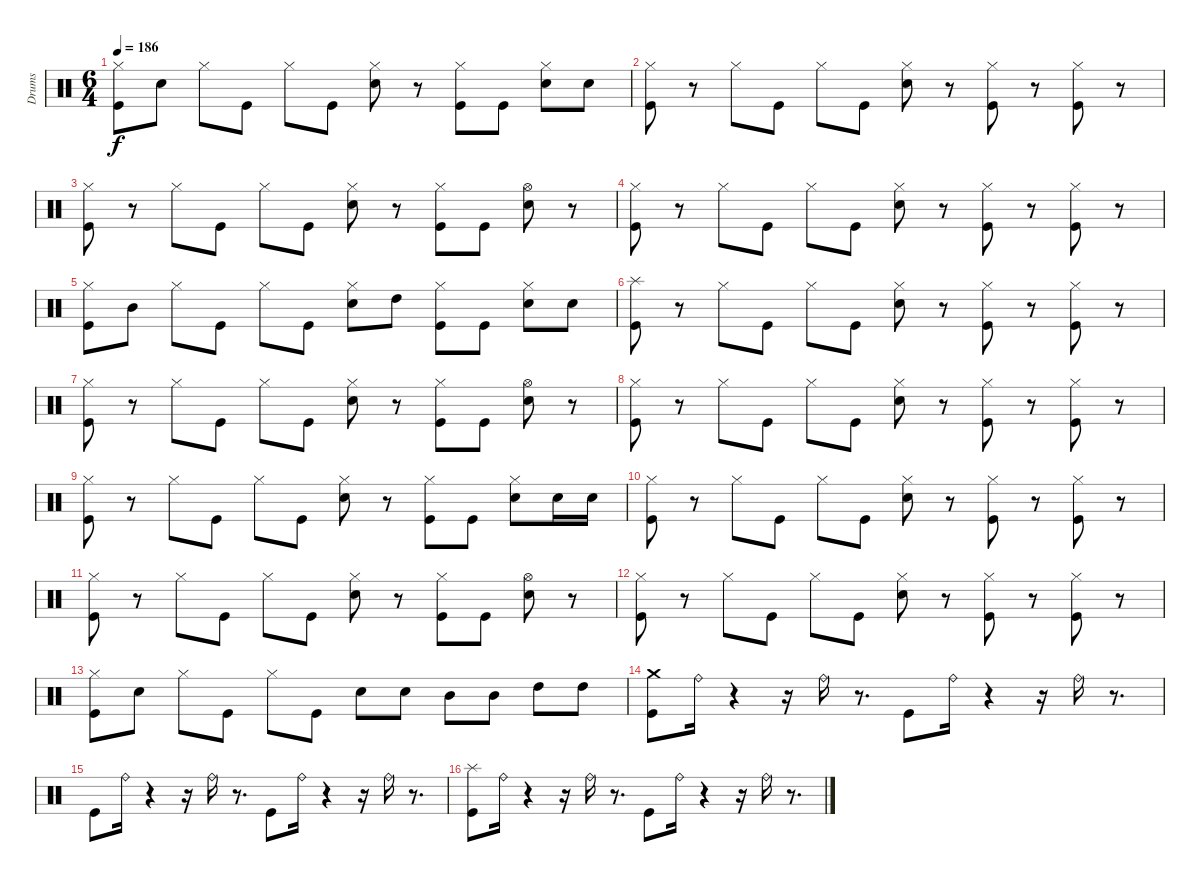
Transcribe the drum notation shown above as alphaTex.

\track ("Drums" "Drums") {instrument percussion}
\staff {score}
\articulation defaults
\ts (6 4)
\tempo 186
\clef neutral
\ks c
("Hi-Hat (closed)" "Kick (hit)").8{dy f} "Snare (hit) 2".8 "Hi-Hat (closed)".8 "Kick (hit)".8 "Hi-Hat (closed)".8 "Kick (hit)".8 ("Hi-Hat (closed)" "Snare (hit) 2").8 r.8 ("Hi-Hat (closed)" "Kick (hit)").8 "Kick (hit)".8 ("Hi-Hat (closed)" "Snare (hit) 2").8 "Snare (hit) 2".8 |
("Hi-Hat (closed)" "Kick (hit)").8 r.8 "Hi-Hat (closed)".8 "Kick (hit)".8 "Hi-Hat (closed)".8 "Kick (hit)".8 ("Hi-Hat (closed)" "Snare (hit) 2").8 r.8 ("Hi-Hat (closed)" "Kick (hit)").8 r.8 ("Hi-Hat (closed)" "Kick (hit)").8 r.8 |
("Hi-Hat (closed)" "Kick (hit)").8 r.8 "Hi-Hat (closed)".8 "Kick (hit)".8 "Hi-Hat (closed)".8 "Kick (hit)".8 ("Hi-Hat (closed)" "Snare (hit) 2").8 r.8 ("Hi-Hat (closed)" "Kick (hit)").8 "Kick (hit)".8 ("Hi-Hat (open)" "Snare (hit) 2").8 r.8 |
("Hi-Hat (closed)" "Kick (hit)").8 r.8 "Hi-Hat (closed)".8 "Kick (hit)".8 "Hi-Hat (closed)".8 "Kick (hit)".8 ("Hi-Hat (closed)" "Snare (hit) 2").8 r.8 ("Hi-Hat (closed)" "Kick (hit)").8 r.8 ("Hi-Hat (closed)" "Kick (hit)").8 r.8 |
("Hi-Hat (closed)" "Kick (hit)").8 "Mid Tom (hit)".8 "Hi-Hat (closed)".8 "Kick (hit)".8 "Hi-Hat (closed)".8 "Kick (hit)".8 ("Hi-Hat (closed)" "Snare (hit) 2").8 "High Tom (hit)".8 ("Hi-Hat (closed)" "Kick (hit)").8 "Kick (hit)".8 ("Hi-Hat (closed)" "Snare (hit) 2").8 "Snare (hit) 2".8 |
("Kick (hit)" "Splash (hit)").8 r.8 "Hi-Hat (closed)".8 "Kick (hit)".8 "Hi-Hat (closed)".8 "Kick (hit)".8 ("Hi-Hat (closed)" "Snare (hit) 2").8 r.8 ("Hi-Hat (closed)" "Kick (hit)").8 r.8 ("Hi-Hat (closed)" "Kick (hit)").8 r.8 |
("Hi-Hat (closed)" "Kick (hit)").8 r.8 "Hi-Hat (closed)".8 "Kick (hit)".8 "Hi-Hat (closed)".8 "Kick (hit)".8 ("Hi-Hat (closed)" "Snare (hit) 2").8 r.8 ("Hi-Hat (closed)" "Kick (hit)").8 "Kick (hit)".8 ("Snare (hit) 2" "Hi-Hat (open)").8 r.8 |
("Hi-Hat (closed)" "Kick (hit)").8 r.8 "Hi-Hat (closed)".8 "Kick (hit)".8 "Hi-Hat (closed)".8 "Kick (hit)".8 ("Hi-Hat (closed)" "Snare (hit) 2").8 r.8 ("Hi-Hat (closed)" "Kick (hit)").8 r.8 ("Hi-Hat (closed)" "Kick (hit)").8 r.8 |
("Hi-Hat (closed)" "Kick (hit)").8 r.8 "Hi-Hat (closed)".8 "Kick (hit)".8 "Hi-Hat (closed)".8 "Kick (hit)".8 ("Hi-Hat (closed)" "Snare (hit) 2").8 r.8 ("Hi-Hat (closed)" "Kick (hit)").8 "Kick (hit)".8 ("Hi-Hat (closed)" "Snare (hit) 2").8 "Snare (hit) 2".16 "Snare (hit) 2".16 |
("Hi-Hat (closed)" "Kick (hit)").8 r.8 "Hi-Hat (closed)".8 "Kick (hit)".8 "Hi-Hat (closed)".8 "Kick (hit)".8 ("Hi-Hat (closed)" "Snare (hit) 2").8 r.8 ("Hi-Hat (closed)" "Kick (hit)").8 r.8 ("Hi-Hat (closed)" "Kick (hit)").8 r.8 |
("Hi-Hat (closed)" "Kick (hit)").8 r.8 "Hi-Hat (closed)".8 "Kick (hit)".8 "Hi-Hat (closed)".8 "Kick (hit)".8 ("Hi-Hat (closed)" "Snare (hit) 2").8 r.8 ("Hi-Hat (closed)" "Kick (hit)").8 "Kick (hit)".8 ("Hi-Hat (open)" "Snare (hit) 2").8 r.8 |
("Hi-Hat (closed)" "Kick (hit)").8 r.8 "Hi-Hat (closed)".8 "Kick (hit)".8 "Hi-Hat (closed)".8 "Kick (hit)".8 ("Hi-Hat (closed)" "Snare (hit) 2").8 r.8 ("Hi-Hat (closed)" "Kick (hit)").8 r.8 ("Hi-Hat (closed)" "Kick (hit)").8 r.8 |
("Hi-Hat (closed)" "Kick (hit)").8 "Snare (hit) 2".8 "Hi-Hat (closed)".8 "Kick (hit)".8 "Hi-Hat (closed)".8 "Kick (hit)".8 "Snare (hit) 2".8 "Snare (hit) 2".8 "Mid Tom (hit)".8 "Mid Tom (hit)".8 "High Tom (hit)".8 "High Tom (hit)".8 |
("Kick (hit)" "Crash medium (hit)").8 "Ride (bell)".16 r.4 r.16 "Ride (bell)".16 r.8{d} "Kick (hit)".8 "Ride (bell)".16 r.4 r.16 "Ride (bell)".16 r.8{d} |
"Kick (hit)".8 "Ride (bell)".16 r.4 r.16 "Ride (bell)".16 r.8{d} "Kick (hit)".8 "Ride (bell)".16 r.4 r.16 "Ride (bell)".16 r.8{d} |
("Kick (hit)" "Splash (hit)").8 "Ride (bell)".16 r.4 r.16 "Ride (bell)".16 r.8{d} "Kick (hit)".8 "Ride (bell)".16 r.4 r.16 "Ride (bell)".16 r.8{d}
